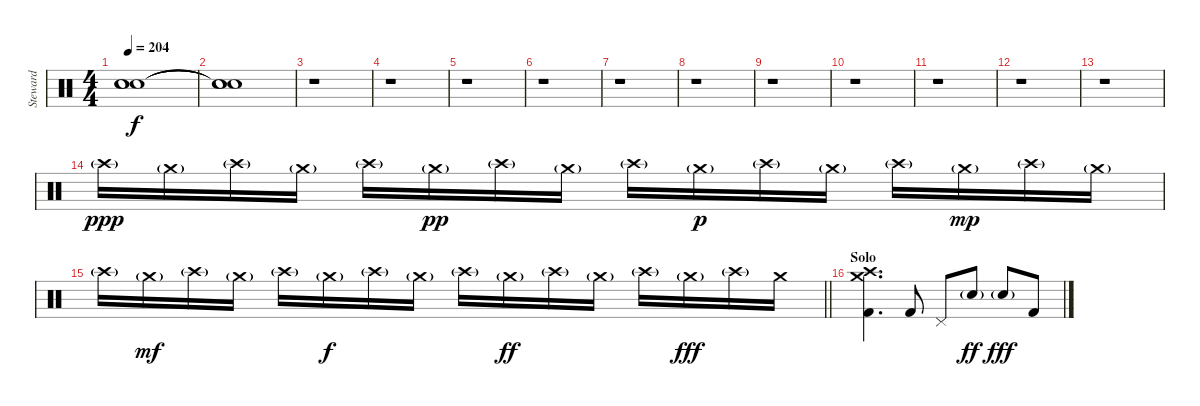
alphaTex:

\track ("Steward" "Steward") {instrument percussion}
\staff {score}
\articulation defaults
\ts (4 4)
\tempo 204
\clef neutral
\ks c
("Snare (hit)"{t} "Snare (hit)"{t} "Snare (hit)"{t}).1{dy f} |
("Snare (hit)"{t} "Snare (hit)"{t} "Snare (hit)"{t}).1 |
r.1 |
r.1 |
r.1 |
r.1 |
r.1 |
r.1 |
r.1 |
r.1 |
r.1 |
r.1 |
r.1 |
"Crash high (hit)"{g}.16{dy ppp} "Crash medium (hit)"{g}.16 "Crash high (hit)"{g}.16 "Crash medium (hit)"{g}.16 "Crash high (hit)"{g}.16 "Crash medium (hit)"{g}.16{dy pp} "Crash high (hit)"{g}.16 "Crash medium (hit)"{g}.16 "Crash high (hit)"{g}.16 "Crash medium (hit)"{g}.16{dy p} "Crash high (hit)"{g}.16 "Crash medium (hit)"{g}.16 "Crash high (hit)"{g}.16 "Crash medium (hit)"{g}.16{dy mp} "Crash high (hit)"{g}.16 "Crash medium (hit)"{g}.16 |
\barLineRight lightlight "Crash high (hit)"{g}.16 "Crash medium (hit)"{g}.16{dy mf} "Crash high (hit)"{g}.16 "Crash medium (hit)"{g}.16 "Crash high (hit)"{g}.16 "Crash medium (hit)"{g}.16{dy f} "Crash high (hit)"{g}.16 "Crash medium (hit)"{g}.16 "Crash high (hit)"{g}.16 "Crash medium (hit)"{g}.16{dy ff} "Crash high (hit)"{g}.16 "Crash medium (hit)"{g}.16 "Crash high (hit)"{g}.16 "Crash medium (hit)"{g}.16{dy fff} "Crash high (hit)"{g}.16 "Crash medium (hit)".16
|
\section ("" "Solo")
("Crash medium (hit)" "Crash high (hit)" "Kick (hit) 2").4{d} "Kick (hit) 2".8 "Pedal Hi-Hat (hit)".8 "Electric Snare (hit)"{g}.8{dy ff} "Electric Snare (hit)"{g}.8{dy fff} "Kick (hit) 2".8
